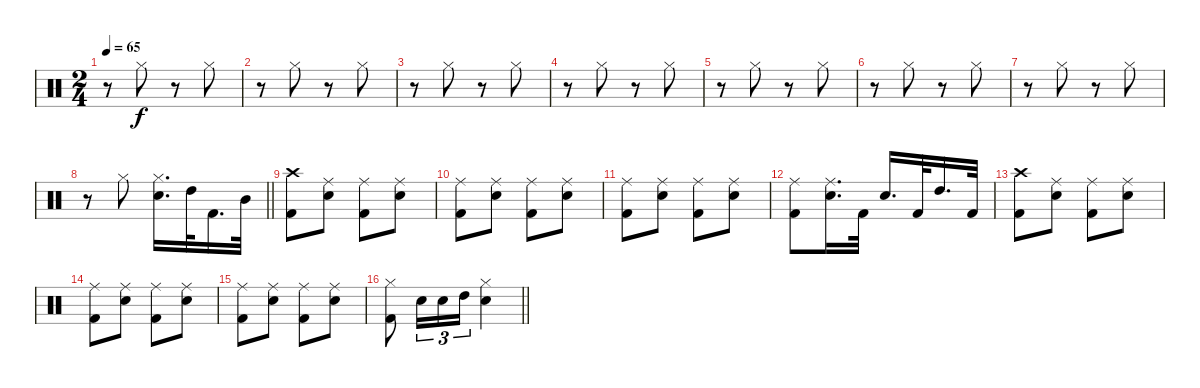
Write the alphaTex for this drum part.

\track "" {instrument percussion}
\staff {score}
\articulation defaults
\ts (2 4)
\tempo 65
\clef neutral
\ks c
r.8{dy f} "Hi-Hat (closed)".8 r.8 "Hi-Hat (closed)".8 |
r.8 "Hi-Hat (closed)".8 r.8 "Hi-Hat (closed)".8 |
r.8 "Hi-Hat (closed)".8 r.8 "Hi-Hat (closed)".8 |
r.8 "Hi-Hat (closed)".8 r.8 "Hi-Hat (closed)".8 |
r.8 "Hi-Hat (closed)".8 r.8 "Hi-Hat (closed)".8 |
r.8 "Hi-Hat (closed)".8 r.8 "Hi-Hat (closed)".8 |
r.8 "Hi-Hat (closed)".8 r.8 "Hi-Hat (closed)".8 |
\barLineRight lightlight
r.8 "Hi-Hat (closed)".8 ("Hi-Hat (closed)" "Snare (hit) 2").16{d} "High Tom (hit)".32 "Kick (hit) 2".16{d} "Mid Tom (hit)".32 |
("Crash high (hit)" "Kick (hit) 2").8 ("Ride (middle)" "Snare (hit) 2").8 ("Ride (middle)" "Kick (hit) 2").8 ("Ride (middle)" "Snare (hit) 2").8 |
("Ride (middle)" "Kick (hit) 2").8 ("Ride (middle)" "Snare (hit) 2").8 ("Ride (middle)" "Kick (hit) 2").8 ("Ride (middle)" "Snare (hit) 2").8 |
("Ride (middle)" "Kick (hit) 2").8 ("Ride (middle)" "Snare (hit) 2").8 ("Ride (middle)" "Kick (hit) 2").8 ("Ride (middle)" "Snare (hit) 2").8 |
("Ride (middle)" "Kick (hit) 2").8 ("Ride (middle)" "Snare (hit) 2").16{d} "Kick (hit) 2".32 "Snare (hit) 2".16{d} "Kick (hit) 2".32 "High Tom (hit)".16{d} "Kick (hit) 2".32 |
("Crash high (hit)" "Kick (hit) 2").8 ("Ride (middle)" "Snare (hit) 2").8 ("Ride (middle)" "Kick (hit) 2").8 ("Ride (middle)" "Snare (hit) 2").8 |
("Ride (middle)" "Kick (hit) 2").8 ("Ride (middle)" "Snare (hit) 2").8 ("Ride (middle)" "Kick (hit) 2").8 ("Ride (middle)" "Snare (hit) 2").8 |
("Ride (middle)" "Kick (hit) 2").8 ("Ride (middle)" "Snare (hit) 2").8 ("Ride (middle)" "Kick (hit) 2").8 ("Ride (middle)" "Snare (hit) 2").8 |
\barLineRight lightlight
("Hi-Hat (closed)" "Kick (hit) 2").8 "Snare (hit) 2".16{tu (3 2)} "Snare (hit) 2".16{tu (3 2)} "High Tom (hit)".16{tu (3 2)} ("Hi-Hat (closed)" "Snare (hit) 2").4
